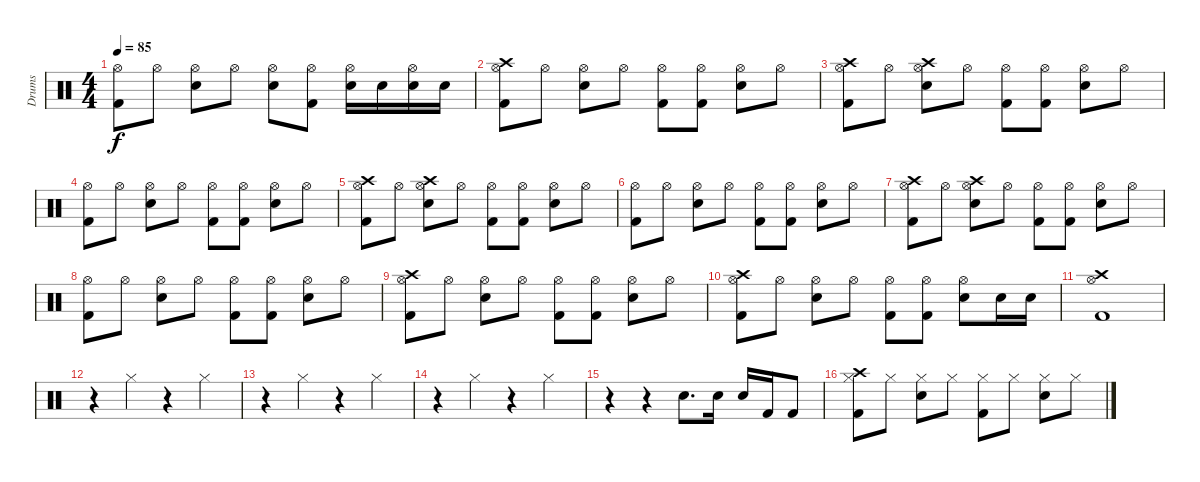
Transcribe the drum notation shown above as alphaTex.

\track ("Drums" "Drums") {instrument percussion}
\staff {score}
\articulation defaults
\ts (4 4)
\tempo 85
\clef neutral
\ks c
("Hi-Hat (open)" "Kick (hit) 2").8{dy f} "Hi-Hat (open)".8 ("Hi-Hat (open)" "Snare (hit) 2").8 "Hi-Hat (open)".8 ("Hi-Hat (open)" "Snare (hit) 2").8 ("Hi-Hat (open)" "Kick (hit) 2").8 ("Hi-Hat (open)" "Snare (hit) 2").16 "Snare (hit) 2".16 ("Hi-Hat (open)" "Snare (hit) 2").16 "Snare (hit) 2".16 |
("Hi-Hat (open)" "Crash high (hit)" "Kick (hit) 2").8 "Hi-Hat (open)".8 ("Hi-Hat (open)" "Snare (hit) 2").8 "Hi-Hat (open)".8 ("Hi-Hat (open)" "Kick (hit) 2").8 ("Hi-Hat (open)" "Kick (hit) 2").8 ("Hi-Hat (open)" "Snare (hit) 2").8 "Hi-Hat (open)".8 |
("Hi-Hat (open)" "Crash high (hit)" "Kick (hit) 2").8 "Hi-Hat (open)".8 ("Hi-Hat (open)" "Crash high (hit)" "Snare (hit) 2").8 "Hi-Hat (open)".8 ("Hi-Hat (open)" "Kick (hit) 2").8 ("Hi-Hat (open)" "Kick (hit) 2").8 ("Hi-Hat (open)" "Snare (hit) 2").8 "Hi-Hat (open)".8 |
("Hi-Hat (open)" "Kick (hit) 2").8 "Hi-Hat (open)".8 ("Hi-Hat (open)" "Snare (hit) 2").8 "Hi-Hat (open)".8 ("Hi-Hat (open)" "Kick (hit) 2").8 ("Hi-Hat (open)" "Kick (hit) 2").8 ("Hi-Hat (open)" "Snare (hit) 2").8 "Hi-Hat (open)".8 |
("Hi-Hat (open)" "Crash high (hit)" "Kick (hit) 2").8 "Hi-Hat (open)".8 ("Hi-Hat (open)" "Crash high (hit)" "Snare (hit) 2").8 "Hi-Hat (open)".8 ("Hi-Hat (open)" "Kick (hit) 2").8 ("Hi-Hat (open)" "Kick (hit) 2").8 ("Hi-Hat (open)" "Snare (hit) 2").8 "Hi-Hat (open)".8 |
("Hi-Hat (open)" "Kick (hit) 2").8 "Hi-Hat (open)".8 ("Hi-Hat (open)" "Snare (hit) 2").8 "Hi-Hat (open)".8 ("Hi-Hat (open)" "Kick (hit) 2").8 ("Hi-Hat (open)" "Kick (hit) 2").8 ("Hi-Hat (open)" "Snare (hit) 2").8 "Hi-Hat (open)".8 |
("Hi-Hat (open)" "Crash high (hit)" "Kick (hit) 2").8 "Hi-Hat (open)".8 ("Hi-Hat (open)" "Crash high (hit)" "Snare (hit) 2").8 "Hi-Hat (open)".8 ("Hi-Hat (open)" "Kick (hit) 2").8 ("Hi-Hat (open)" "Kick (hit) 2").8 ("Hi-Hat (open)" "Snare (hit) 2").8 "Hi-Hat (open)".8 |
("Hi-Hat (open)" "Kick (hit) 2").8 "Hi-Hat (open)".8 ("Hi-Hat (open)" "Snare (hit) 2").8 "Hi-Hat (open)".8 ("Hi-Hat (open)" "Kick (hit) 2").8 ("Hi-Hat (open)" "Kick (hit) 2").8 ("Hi-Hat (open)" "Snare (hit) 2").8 "Hi-Hat (open)".8 |
("Hi-Hat (open)" "Crash high (hit)" "Kick (hit) 2").8 "Hi-Hat (open)".8 ("Hi-Hat (open)" "Snare (hit) 2").8 "Hi-Hat (open)".8 ("Hi-Hat (open)" "Kick (hit) 2").8 ("Hi-Hat (open)" "Kick (hit) 2").8 ("Hi-Hat (open)" "Snare (hit) 2").8 "Hi-Hat (open)".8 |
("Hi-Hat (open)" "Crash high (hit)" "Kick (hit) 2").8 "Hi-Hat (open)".8 ("Hi-Hat (open)" "Snare (hit) 2").8 "Hi-Hat (open)".8 ("Hi-Hat (open)" "Kick (hit) 2").8 ("Hi-Hat (open)" "Kick (hit) 2").8 ("Hi-Hat (open)" "Snare (hit) 2").8 "Snare (hit) 2".16 "Snare (hit) 2".16 |
("Hi-Hat (open)" "Crash high (hit)" "Kick (hit) 2").1 |
r.4 "Hi-Hat (closed)".4 r.4 "Hi-Hat (closed)".4 |
r.4 "Hi-Hat (closed)".4 r.4 "Hi-Hat (closed)".4 |
r.4 "Hi-Hat (closed)".4 r.4 "Hi-Hat (closed)".4 |
r.4 r.4 "Snare (hit) 2".8{d} "Snare (hit) 2".16 "Snare (hit) 2".16 "Kick (hit) 2".16 "Kick (hit) 2".8 |
("Hi-Hat (closed)" "Kick (hit) 2" "Crash high (hit)").8 "Hi-Hat (closed)".8 ("Hi-Hat (closed)" "Snare (hit) 2").8 "Hi-Hat (closed)".8 ("Hi-Hat (closed)" "Kick (hit) 2").8 "Hi-Hat (closed)".8 ("Hi-Hat (closed)" "Snare (hit) 2").8 "Hi-Hat (closed)".8
